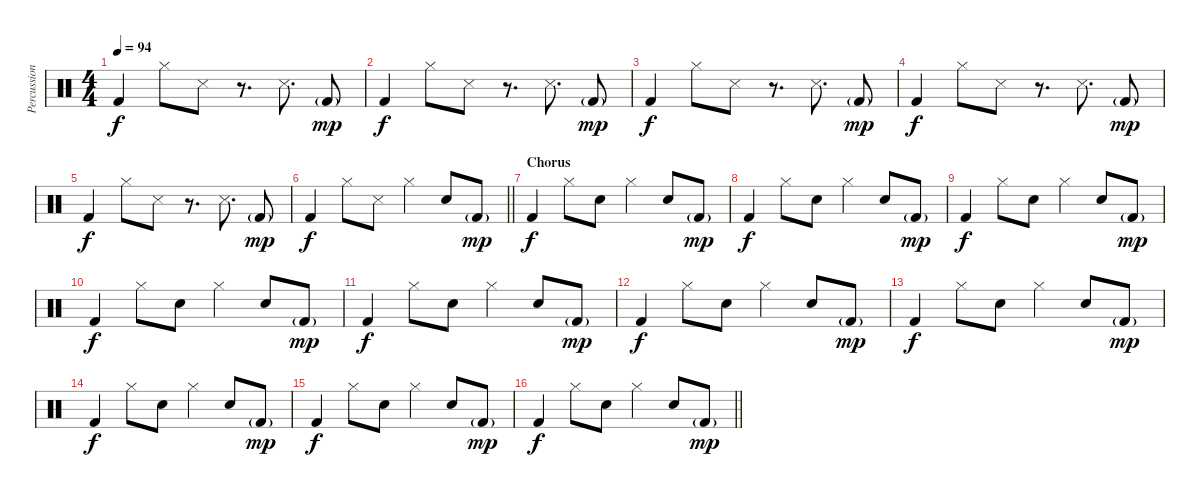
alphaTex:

\track ("Percussion" "Percussion") {instrument percussion}
\staff {score}
\articulation defaults
\ts (4 4)
\tempo 94
\clef neutral
\ks c "Kick (hit) 2".4{dy f} "Hi-Hat (closed)".8 "Snare (side stick) 3".8
r.8{d} "Snare (side stick) 3".8{d} "Kick (hit) 2"{g}.8{dy mp} |
"Kick (hit) 2".4{dy f} "Hi-Hat (closed)".8 "Snare (side stick) 3".8 r.8{d} "Snare (side stick) 3".8{d} "Kick (hit) 2"{g}.8{dy mp} |
"Kick (hit) 2".4{dy f} "Hi-Hat (closed)".8 "Snare (side stick) 3".8 r.8{d} "Snare (side stick) 3".8{d} "Kick (hit) 2"{g}.8{dy mp} |
"Kick (hit) 2".4{dy f} "Hi-Hat (closed)".8 "Snare (side stick) 3".8 r.8{d} "Snare (side stick) 3".8{d} "Kick (hit) 2"{g}.8{dy mp} |
"Kick (hit) 2".4{dy f} "Hi-Hat (closed)".8 "Snare (side stick) 3".8 r.8{d} "Snare (side stick) 3".8{d} "Kick (hit) 2"{g}.8{dy mp} |
\barLineRight lightlight "Kick (hit) 2".4{dy f} "Hi-Hat (closed)".8 "Snare (side stick) 3".8 "Hi-Hat (closed)".4 "Snare (hit) 2".8 "Kick (hit) 2"{g}.8{dy mp}
|
\section ("" "Chorus")
"Kick (hit) 2".4{dy f} "Hi-Hat (closed)".8 "Snare (hit) 2".8 "Hi-Hat (closed)".4 "Snare (hit) 2".8 "Kick (hit) 2"{g}.8{dy mp} |
"Kick (hit) 2".4{dy f} "Hi-Hat (closed)".8 "Snare (hit) 2".8 "Hi-Hat (closed)".4 "Snare (hit) 2".8 "Kick (hit) 2"{g}.8{dy mp} |
"Kick (hit) 2".4{dy f} "Hi-Hat (closed)".8 "Snare (hit) 2".8 "Hi-Hat (closed)".4 "Snare (hit) 2".8 "Kick (hit) 2"{g}.8{dy mp} |
"Kick (hit) 2".4{dy f} "Hi-Hat (closed)".8 "Snare (hit) 2".8 "Hi-Hat (closed)".4 "Snare (hit) 2".8 "Kick (hit) 2"{g}.8{dy mp} |
"Kick (hit) 2".4{dy f} "Hi-Hat (closed)".8 "Snare (hit) 2".8 "Hi-Hat (closed)".4 "Snare (hit) 2".8 "Kick (hit) 2"{g}.8{dy mp} |
"Kick (hit) 2".4{dy f} "Hi-Hat (closed)".8 "Snare (hit) 2".8 "Hi-Hat (closed)".4 "Snare (hit) 2".8 "Kick (hit) 2"{g}.8{dy mp} |
"Kick (hit) 2".4{dy f} "Hi-Hat (closed)".8 "Snare (hit) 2".8 "Hi-Hat (closed)".4 "Snare (hit) 2".8 "Kick (hit) 2"{g}.8{dy mp} |
"Kick (hit) 2".4{dy f} "Hi-Hat (closed)".8 "Snare (hit) 2".8 "Hi-Hat (closed)".4 "Snare (hit) 2".8 "Kick (hit) 2"{g}.8{dy mp} |
"Kick (hit) 2".4{dy f} "Hi-Hat (closed)".8 "Snare (hit) 2".8 "Hi-Hat (closed)".4 "Snare (hit) 2".8 "Kick (hit) 2"{g}.8{dy mp} |
\barLineRight lightlight "Kick (hit) 2".4{dy f} "Hi-Hat (closed)".8 "Snare (hit) 2".8 "Hi-Hat (closed)".4 "Snare (hit) 2".8 "Kick (hit) 2"{g}.8{dy mp}
